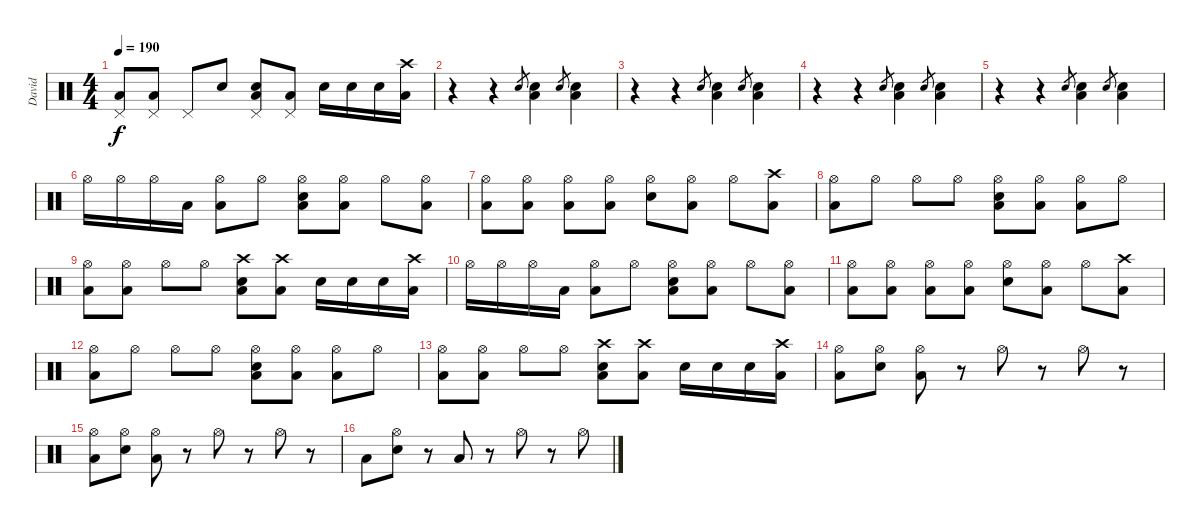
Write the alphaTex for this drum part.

\track ("David" "David") {instrument percussion}
\staff {score}
\articulation defaults
\ts (4 4)
\tempo 190
\clef neutral
\ks c
("Pedal Hi-Hat (hit)" "Low Tom (hit)").8{dy f} ("Pedal Hi-Hat (hit)" "Low Tom (hit)").8 "Pedal Hi-Hat (hit)".8 "Snare (hit)".8 ("Pedal Hi-Hat (hit)" "Electric Snare (hit)" "Low Tom (hit)").8 ("Pedal Hi-Hat (hit)" "Low Tom (hit)").8 "Electric Snare (hit)".16 "Electric Snare (hit)".16 "Electric Snare (hit)".16 ("Crash high (hit)" "Low Tom (hit)").16 |
r.4 r.4 "Electric Snare (hit)".8{gr} ("Electric Snare (hit)" "Low Tom (hit)").4 "Electric Snare (hit)".8{gr} ("Electric Snare (hit)" "Low Tom (hit)").4 |
r.4 r.4 "Electric Snare (hit)".8{gr} ("Electric Snare (hit)" "Low Tom (hit)").4 "Electric Snare (hit)".8{gr} ("Electric Snare (hit)" "Low Tom (hit)").4 |
r.4 r.4 "Electric Snare (hit)".8{gr} ("Electric Snare (hit)" "Low Tom (hit)").4 "Electric Snare (hit)".8{gr} ("Electric Snare (hit)" "Low Tom (hit)").4 |
r.4 r.4 "Electric Snare (hit)".8{gr} ("Electric Snare (hit)" "Low Tom (hit)").4 "Electric Snare (hit)".8{gr} ("Electric Snare (hit)" "Low Tom (hit)").4 |
"Hi-Hat (open)".16 "Hi-Hat (open)".16 "Hi-Hat (open)".16 "Low Tom (hit)".16 ("Hi-Hat (open)" "Low Tom (hit)").8 "Hi-Hat (open)".8 ("Hi-Hat (open)" "Electric Snare (hit)" "Low Tom (hit)").8 ("Hi-Hat (open)" "Low Tom (hit)").8 "Hi-Hat (open)".8 ("Hi-Hat (open)" "Low Tom (hit)").8 |
("Hi-Hat (open)" "Low Tom (hit)").8 ("Hi-Hat (open)" "Low Tom (hit)").8 ("Hi-Hat (open)" "Low Tom (hit)").8 ("Hi-Hat (open)" "Low Tom (hit)").8 ("Hi-Hat (open)" "Electric Snare (hit)").8 ("Hi-Hat (open)" "Low Tom (hit)").8 "Hi-Hat (open)".8 ("Crash high (hit)" "Low Tom (hit)").8 |
("Hi-Hat (open)" "Low Tom (hit)").8 "Hi-Hat (open)".8 "Hi-Hat (open)".8 "Hi-Hat (open)".8 ("Hi-Hat (open)" "Electric Snare (hit)" "Low Tom (hit)").8 ("Hi-Hat (open)" "Low Tom (hit)").8 ("Hi-Hat (open)" "Low Tom (hit)").8 "Hi-Hat (open)".8 |
("Hi-Hat (open)" "Low Tom (hit)").8 ("Hi-Hat (open)" "Low Tom (hit)").8 "Hi-Hat (open)".8 "Hi-Hat (open)".8 ("Crash high (hit)" "Electric Snare (hit)" "Low Tom (hit)").8 ("Crash high (hit)" "Low Tom (hit)").8 "Electric Snare (hit)".16 "Electric Snare (hit)".16 "Electric Snare (hit)".16 ("Crash high (hit)" "Low Tom (hit)").16 |
"Hi-Hat (open)".16 "Hi-Hat (open)".16 "Hi-Hat (open)".16 "Low Tom (hit)".16 ("Hi-Hat (open)" "Low Tom (hit)").8 "Hi-Hat (open)".8 ("Hi-Hat (open)" "Electric Snare (hit)" "Low Tom (hit)").8 ("Hi-Hat (open)" "Low Tom (hit)").8 "Hi-Hat (open)".8 ("Hi-Hat (open)" "Low Tom (hit)").8 |
("Hi-Hat (open)" "Low Tom (hit)").8 ("Hi-Hat (open)" "Low Tom (hit)").8 ("Hi-Hat (open)" "Low Tom (hit)").8 ("Hi-Hat (open)" "Low Tom (hit)").8 ("Hi-Hat (open)" "Electric Snare (hit)").8 ("Hi-Hat (open)" "Low Tom (hit)").8 "Hi-Hat (open)".8 ("Crash high (hit)" "Low Tom (hit)").8 |
("Hi-Hat (open)" "Low Tom (hit)").8 "Hi-Hat (open)".8 "Hi-Hat (open)".8 "Hi-Hat (open)".8 ("Hi-Hat (open)" "Electric Snare (hit)" "Low Tom (hit)").8 ("Hi-Hat (open)" "Low Tom (hit)").8 ("Hi-Hat (open)" "Low Tom (hit)").8 "Hi-Hat (open)".8 |
("Hi-Hat (open)" "Low Tom (hit)").8 ("Hi-Hat (open)" "Low Tom (hit)").8 "Hi-Hat (open)".8 "Hi-Hat (open)".8 ("Crash high (hit)" "Electric Snare (hit)" "Low Tom (hit)").8 ("Crash high (hit)" "Low Tom (hit)").8 "Electric Snare (hit)".16 "Electric Snare (hit)".16 "Electric Snare (hit)".16 ("Crash high (hit)" "Low Tom (hit)").16 |
("Hi-Hat (open)" "Low Tom (hit)").8 ("Hi-Hat (open)" "Electric Snare (hit)").8 ("Hi-Hat (open)" "Low Tom (hit)").8 r.8 "Hi-Hat (open)".8 r.8 "Hi-Hat (open)".8 r.8 |
("Hi-Hat (open)" "Low Tom (hit)").8 ("Hi-Hat (open)" "Electric Snare (hit)").8 ("Hi-Hat (open)" "Low Tom (hit)").8 r.8 "Hi-Hat (open)".8 r.8 "Hi-Hat (open)".8 r.8 |
"Low Tom (hit)".8 ("Hi-Hat (open)" "Electric Snare (hit)").8 r.8 "Low Tom (hit)".8 r.8 "Hi-Hat (open)".8 r.8 "Hi-Hat (open)".8
